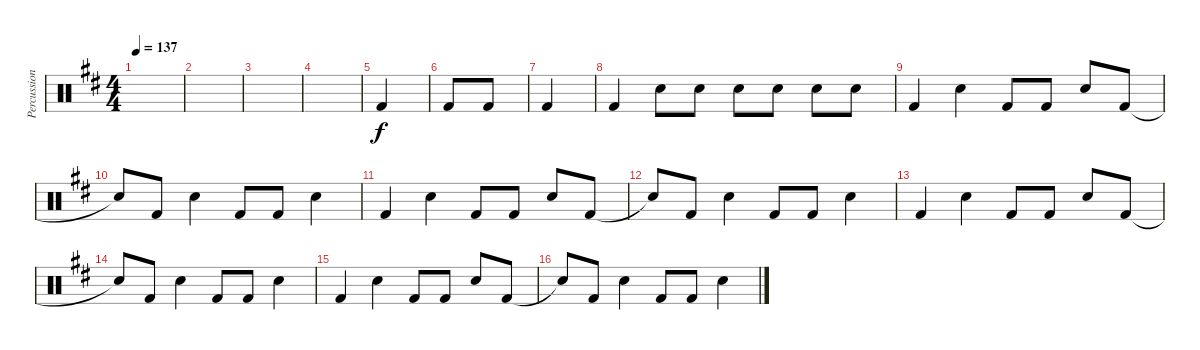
\track ("Percussion" "Percussion") {instrument percussion}
\staff {score}
\articulation defaults
\ts (4 4)
\tempo 137
\clef neutral
\ks d
|
|
|
|
"Kick (hit) 2".4 |
"Kick (hit) 2".8 "Kick (hit) 2".8 |
"Kick (hit) 2".4 |
"Kick (hit) 2".4 "Electric Snare (hit)".8 "Electric Snare (hit)".8 "Electric Snare (hit)".8 "Electric Snare (hit)".8 "Electric Snare (hit)".8 "Electric Snare (hit)".8 |
"Kick (hit) 2".4 "Electric Snare (hit)".4 "Kick (hit) 2".8 "Kick (hit) 2".8 "Electric Snare (hit)".8 "Kick (hit) 2".8 |
"Snare (hit)"{t}.8 "Kick (hit) 2".8 "Electric Snare (hit)".4 "Kick (hit) 2".8 "Kick (hit) 2".8 "Electric Snare (hit)".4 |
"Kick (hit) 2".4 "Electric Snare (hit)".4 "Kick (hit) 2".8 "Kick (hit) 2".8 "Electric Snare (hit)".8 "Kick (hit) 2".8 |
"Snare (hit)"{t}.8 "Kick (hit) 2".8 "Electric Snare (hit)".4 "Kick (hit) 2".8 "Kick (hit) 2".8 "Electric Snare (hit)".4 |
"Kick (hit) 2".4 "Electric Snare (hit)".4 "Kick (hit) 2".8 "Kick (hit) 2".8 "Electric Snare (hit)".8 "Kick (hit) 2".8 |
"Snare (hit)"{t}.8 "Kick (hit) 2".8 "Electric Snare (hit)".4 "Kick (hit) 2".8 "Kick (hit) 2".8 "Electric Snare (hit)".4 |
"Kick (hit) 2".4 "Electric Snare (hit)".4 "Kick (hit) 2".8 "Kick (hit) 2".8 "Electric Snare (hit)".8 "Kick (hit) 2".8 |
"Snare (hit)"{t}.8 "Kick (hit) 2".8 "Electric Snare (hit)".4 "Kick (hit) 2".8 "Kick (hit) 2".8 "Electric Snare (hit)".4
